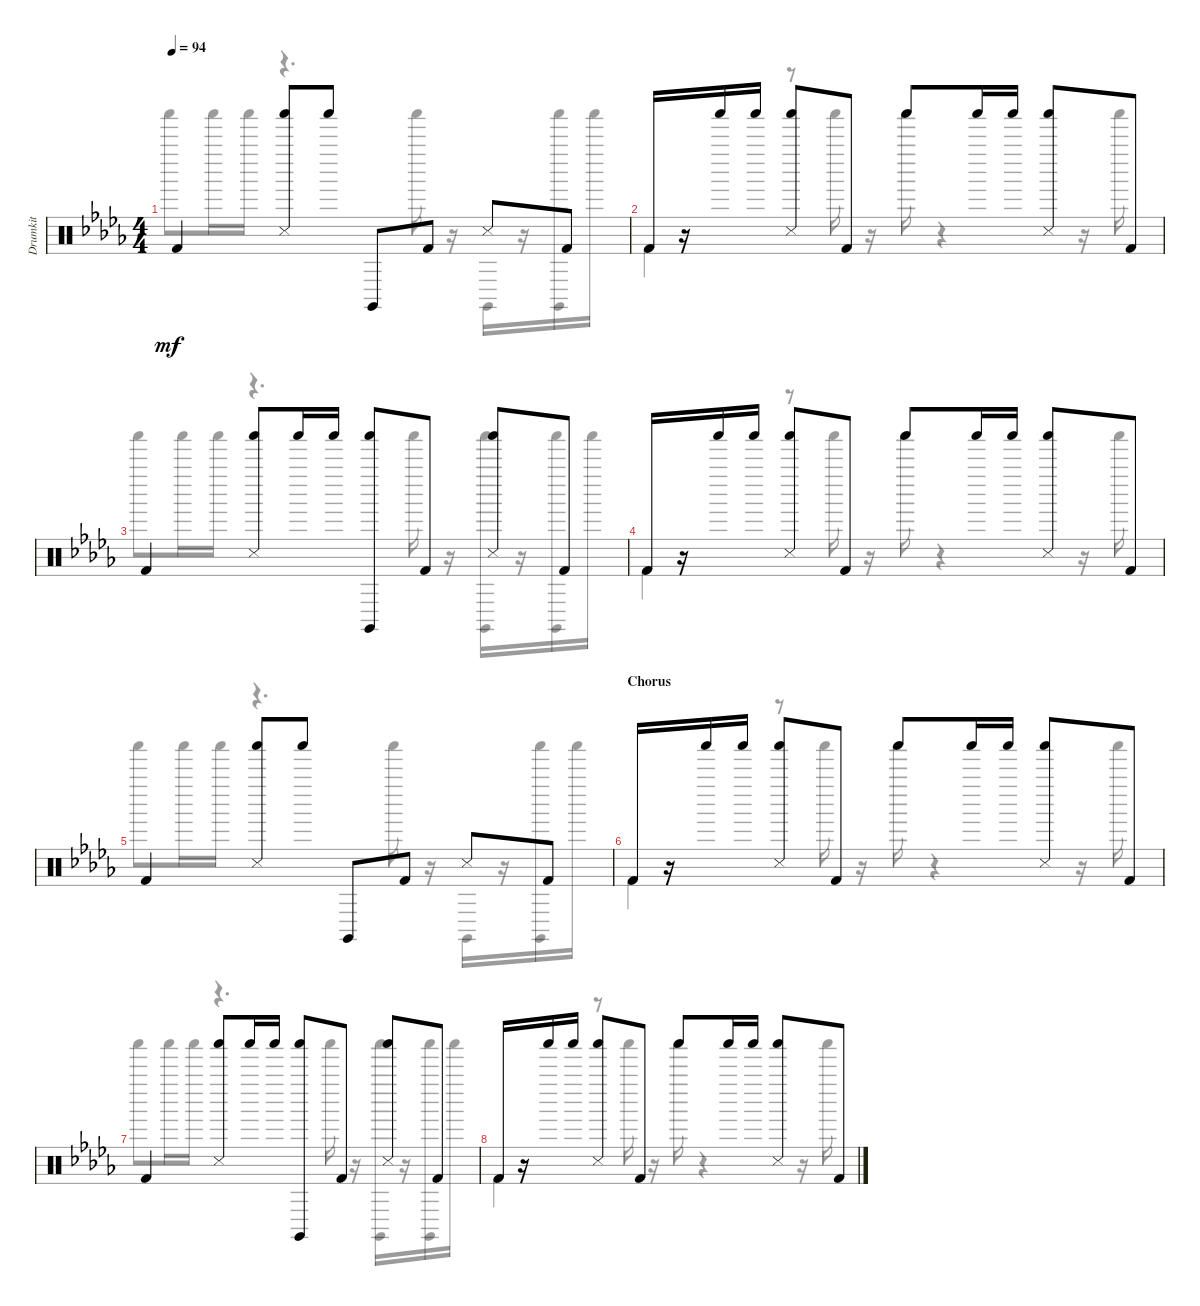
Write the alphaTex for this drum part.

\track ("Drumkit" "Drumkit") {instrument percussion}
\staff {score}
\articulation defaults
\voice
\ts (4 4)
\tempo 94
\clef neutral
\ks bbminor "Kick (hit) 2".4{dy mf}
("Snare (side stick) 3" "Shaker (hit)").8 "Shaker (hit)".8 "Claves (hit)".8 "Kick (hit) 2".8 "Snare (side stick) 3".8 "Kick (hit) 2".8 |
"Kick (hit) 2".16 r.16 "Shaker (hit)".16 "Shaker (hit)".16 ("Shaker (hit)" "Snare (side stick) 3").8 "Kick (hit) 2".8 "Shaker (hit)".8 "Shaker (hit)".16 "Shaker (hit)".16 ("Snare (side stick) 3" "Shaker (hit)").8 "Kick (hit) 2".8 |
"Kick (hit) 2".4 ("Snare (side stick) 3" "Shaker (hit)").8 "Shaker (hit)".16 "Shaker (hit)".16 ("Shaker (hit)" "Claves (hit)").8 "Kick (hit) 2".8 ("Shaker (hit)" "Snare (side stick) 3").8 "Kick (hit) 2".8 |
"Kick (hit) 2".16 r.16 "Shaker (hit)".16 "Shaker (hit)".16 ("Shaker (hit)" "Snare (side stick) 3").8 "Kick (hit) 2".8 "Shaker (hit)".8 "Shaker (hit)".16 "Shaker (hit)".16 ("Snare (side stick) 3" "Shaker (hit)").8 "Kick (hit) 2".8 |
"Kick (hit) 2".4 ("Snare (side stick) 3" "Shaker (hit)").8 "Shaker (hit)".8 "Claves (hit)".8 "Kick (hit) 2".8 "Snare (side stick) 3".8 "Kick (hit) 2".8 |
\section ("" "Chorus")
"Kick (hit) 2".16 r.16 "Shaker (hit)".16 "Shaker (hit)".16 ("Snare (side stick) 3" "Shaker (hit)").8 "Kick (hit) 2".8 "Shaker (hit)".8 "Shaker (hit)".16 "Shaker (hit)".16 ("Shaker (hit)" "Snare (side stick) 3").8 "Kick (hit) 2".8 |
"Kick (hit) 2".4 ("Snare (side stick) 3" "Shaker (hit)").8 "Shaker (hit)".16 "Shaker (hit)".16 ("Shaker (hit)" "Claves (hit)").8 "Kick (hit) 2".8 ("Snare (side stick) 3" "Shaker (hit)").8 "Kick (hit) 2".8 |
"Kick (hit) 2".16 r.16 "Shaker (hit)".16 "Shaker (hit)".16 ("Shaker (hit)" "Snare (side stick) 3").8 "Kick (hit) 2".8 "Shaker (hit)".8 "Shaker (hit)".16 "Shaker (hit)".16 ("Shaker (hit)" "Snare (side stick) 3").8 "Kick (hit) 2".8
\voice
\clef neutral
\ottava regular
\simile none
\ks bbminor "Shaker (hit)".8{dy mf} "Shaker (hit)".16 "Shaker (hit)".16
r.4{d} "Shaker (hit)".16 r.16 "Claves (hit)".16 r.16 ("Claves (hit)" "Shaker (hit)").16 "Shaker (hit)".16 |
"Kick (hit) 2".4 r.8 "Shaker (hit)".16 r.16 "Shaker (hit)".16 r.4 r.16 "Shaker (hit)".16 |
"Shaker (hit)".8 "Shaker (hit)".16 "Shaker (hit)".16 r.4{d} "Shaker (hit)".16 r.16 ("Claves (hit)" "Shaker (hit)").16 r.16 ("Claves (hit)" "Shaker (hit)").16 "Shaker (hit)".16 |
"Kick (hit) 2".4 r.8 "Shaker (hit)".16 r.16 "Shaker (hit)".16 r.4 r.16 "Shaker (hit)".16 |
"Shaker (hit)".8 "Shaker (hit)".16 "Shaker (hit)".16 r.4{d} "Shaker (hit)".16 r.16 "Claves (hit)".16 r.16 ("Shaker (hit)" "Claves (hit)").16 "Shaker (hit)".16 |
"Kick (hit) 2".4 r.8 "Shaker (hit)".16 r.16 "Shaker (hit)".16 r.4 r.16 "Shaker (hit)".16 |
"Shaker (hit)".8 "Shaker (hit)".16 "Shaker (hit)".16 r.4{d} "Shaker (hit)".16 r.16 ("Shaker (hit)" "Claves (hit)").16 r.16 ("Shaker (hit)" "Claves (hit)").16 "Shaker (hit)".16 |
"Kick (hit) 2".4 r.8 "Shaker (hit)".16 r.16 "Shaker (hit)".16 r.4 r.16 "Shaker (hit)".16
